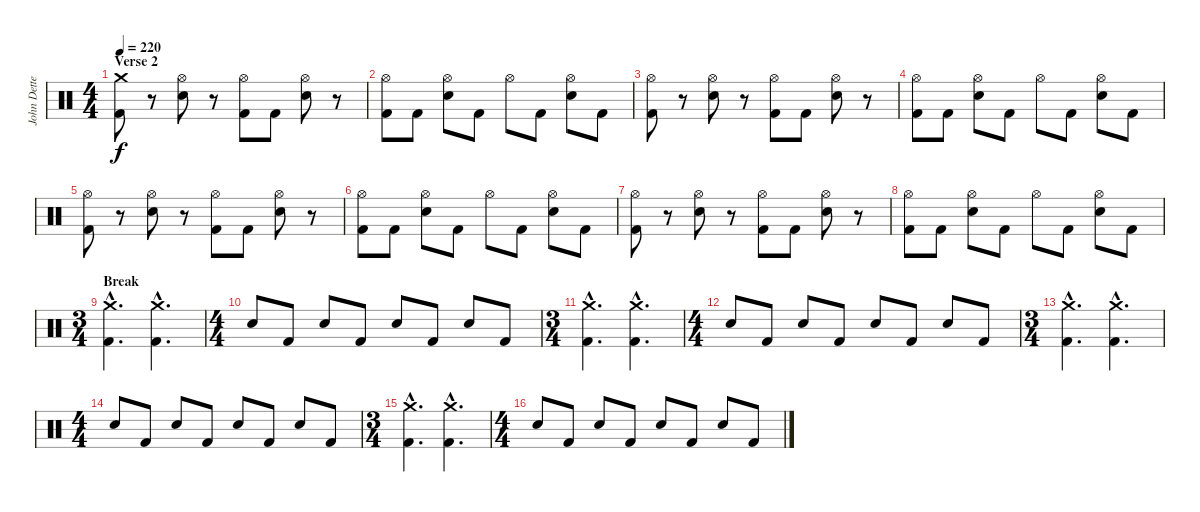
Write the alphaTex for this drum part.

\track ("John Dette" "John Dette") {instrument percussion}
\staff {score}
\articulation defaults
\ts (4 4)
\section ("" "Verse 2")
\tempo 220
\clef neutral
\ks c
("Crash medium (hit)" "Kick (hit) 2").8{dy f} r.8 ("Hi-Hat (open)" "Snare (hit) 2").8 r.8 ("Hi-Hat (open)" "Kick (hit) 2").8 "Kick (hit) 2".8 ("Hi-Hat (open)" "Snare (hit) 2").8 r.8 |
("Hi-Hat (open)" "Kick (hit) 2").8 "Kick (hit) 2".8 ("Hi-Hat (open)" "Snare (hit) 2").8 "Kick (hit) 2".8 "Hi-Hat (open)".8 "Kick (hit) 2".8 ("Hi-Hat (open)" "Snare (hit) 2").8 "Kick (hit) 2".8 |
("Hi-Hat (open)" "Kick (hit) 2").8 r.8 ("Hi-Hat (open)" "Snare (hit) 2").8 r.8 ("Hi-Hat (open)" "Kick (hit) 2").8 "Kick (hit) 2".8 ("Hi-Hat (open)" "Snare (hit) 2").8 r.8 |
("Hi-Hat (open)" "Kick (hit) 2").8 "Kick (hit) 2".8 ("Hi-Hat (open)" "Snare (hit) 2").8 "Kick (hit) 2".8 "Hi-Hat (open)".8 "Kick (hit) 2".8 ("Hi-Hat (open)" "Snare (hit) 2").8 "Kick (hit) 2".8 |
("Hi-Hat (open)" "Kick (hit) 2").8 r.8 ("Hi-Hat (open)" "Snare (hit) 2").8 r.8 ("Hi-Hat (open)" "Kick (hit) 2").8 "Kick (hit) 2".8 ("Hi-Hat (open)" "Snare (hit) 2").8 r.8 |
("Hi-Hat (open)" "Kick (hit) 2").8 "Kick (hit) 2".8 ("Hi-Hat (open)" "Snare (hit) 2").8 "Kick (hit) 2".8 "Hi-Hat (open)".8 "Kick (hit) 2".8 ("Hi-Hat (open)" "Snare (hit) 2").8 "Kick (hit) 2".8 |
("Hi-Hat (open)" "Kick (hit) 2").8 r.8 ("Hi-Hat (open)" "Snare (hit) 2").8 r.8 ("Hi-Hat (open)" "Kick (hit) 2").8 "Kick (hit) 2".8 ("Hi-Hat (open)" "Snare (hit) 2").8 r.8 |
("Hi-Hat (open)" "Kick (hit) 2").8 "Kick (hit) 2".8 ("Hi-Hat (open)" "Snare (hit) 2").8 "Kick (hit) 2".8 "Hi-Hat (open)".8 "Kick (hit) 2".8 ("Hi-Hat (open)" "Snare (hit) 2").8 "Kick (hit) 2".8 |
\ts (3 4)
\section ("" "Break")
("Crash medium (hit)"{hac} "Kick (hit) 2"{hac}).4{d} ("Crash medium (hit)"{hac} "Kick (hit) 2"{hac}).4{d} |
\ts (4 4)
"Snare (hit) 2".8 "Kick (hit) 2".8 "Snare (hit) 2".8 "Kick (hit) 2".8 "Snare (hit) 2".8 "Kick (hit) 2".8 "Snare (hit) 2".8 "Kick (hit) 2".8 |
\ts (3 4)
("Crash medium (hit)"{hac} "Kick (hit) 2"{hac}).4{d} ("Crash medium (hit)"{hac} "Kick (hit) 2"{hac}).4{d} |
\ts (4 4)
"Snare (hit) 2".8 "Kick (hit) 2".8 "Snare (hit) 2".8 "Kick (hit) 2".8 "Snare (hit) 2".8 "Kick (hit) 2".8 "Snare (hit) 2".8 "Kick (hit) 2".8 |
\ts (3 4)
("Crash medium (hit)"{hac} "Kick (hit) 2"{hac}).4{d} ("Crash medium (hit)"{hac} "Kick (hit) 2"{hac}).4{d} |
\ts (4 4)
"Snare (hit) 2".8 "Kick (hit) 2".8 "Snare (hit) 2".8 "Kick (hit) 2".8 "Snare (hit) 2".8 "Kick (hit) 2".8 "Snare (hit) 2".8 "Kick (hit) 2".8 |
\ts (3 4)
("Crash medium (hit)"{hac} "Kick (hit) 2"{hac}).4{d} ("Crash medium (hit)"{hac} "Kick (hit) 2"{hac}).4{d} |
\ts (4 4)
"Snare (hit) 2".8 "Kick (hit) 2".8 "Snare (hit) 2".8 "Kick (hit) 2".8 "Snare (hit) 2".8 "Kick (hit) 2".8 "Snare (hit) 2".8 "Kick (hit) 2".8
